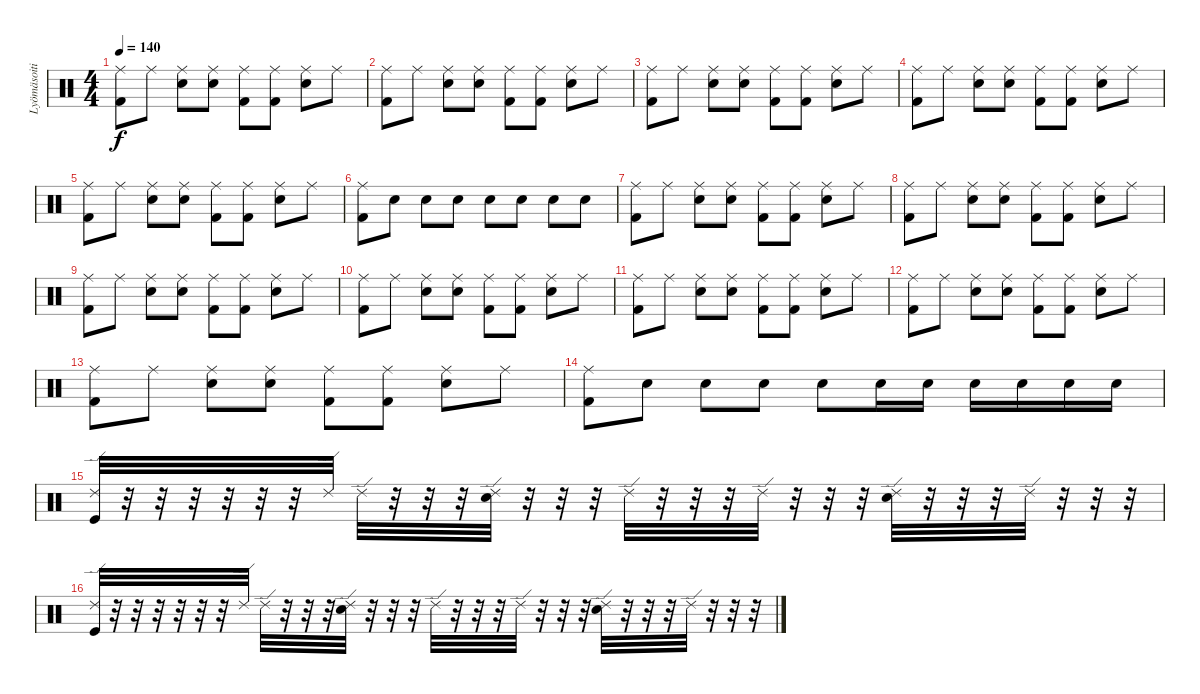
\track ("Lyömäsoitin" "Lyömäsoiti") {instrument percussion}
\staff {score}
\articulation defaults
\ts (4 4)
\tempo 140
\clef neutral
\ks c
("Ride (middle)" "Kick (hit) 2").8{dy f} "Ride (middle)".8 ("Ride (middle)" "Electric Snare (hit)").8 ("Ride (middle)" "Electric Snare (hit)").8 ("Ride (middle)" "Kick (hit) 2").8 ("Ride (middle)" "Kick (hit) 2").8 ("Ride (middle)" "Electric Snare (hit)").8 "Ride (middle)".8 |
("Ride (middle)" "Kick (hit) 2").8 "Ride (middle)".8 ("Ride (middle)" "Electric Snare (hit)").8 ("Ride (middle)" "Electric Snare (hit)").8 ("Ride (middle)" "Kick (hit) 2").8 ("Ride (middle)" "Kick (hit) 2").8 ("Ride (middle)" "Electric Snare (hit)").8 "Ride (middle)".8 |
("Ride (middle)" "Kick (hit) 2").8 "Ride (middle)".8 ("Ride (middle)" "Electric Snare (hit)").8 ("Ride (middle)" "Electric Snare (hit)").8 ("Ride (middle)" "Kick (hit) 2").8 ("Ride (middle)" "Kick (hit) 2").8 ("Ride (middle)" "Electric Snare (hit)").8 "Ride (middle)".8 |
("Ride (middle)" "Kick (hit) 2").8 "Ride (middle)".8 ("Ride (middle)" "Electric Snare (hit)").8 ("Ride (middle)" "Electric Snare (hit)").8 ("Ride (middle)" "Kick (hit) 2").8 ("Ride (middle)" "Kick (hit) 2").8 ("Ride (middle)" "Electric Snare (hit)").8 "Ride (middle)".8 |
("Ride (middle)" "Kick (hit) 2").8 "Ride (middle)".8 ("Ride (middle)" "Electric Snare (hit)").8 ("Ride (middle)" "Electric Snare (hit)").8 ("Ride (middle)" "Kick (hit) 2").8 ("Ride (middle)" "Kick (hit) 2").8 ("Ride (middle)" "Electric Snare (hit)").8 "Ride (middle)".8 |
("Ride (middle)" "Kick (hit) 2").8 "Electric Snare (hit)".8 "Electric Snare (hit)".8 "Electric Snare (hit)".8 "Electric Snare (hit)".8 "Electric Snare (hit)".8 "Electric Snare (hit)".8 "Electric Snare (hit)".8 |
("Ride (middle)" "Kick (hit) 2").8 "Ride (middle)".8 ("Ride (middle)" "Electric Snare (hit)").8 ("Ride (middle)" "Electric Snare (hit)").8 ("Ride (middle)" "Kick (hit) 2").8 ("Ride (middle)" "Kick (hit) 2").8 ("Ride (middle)" "Electric Snare (hit)").8 "Ride (middle)".8 |
("Ride (middle)" "Kick (hit) 2").8 "Ride (middle)".8 ("Ride (middle)" "Electric Snare (hit)").8 ("Ride (middle)" "Electric Snare (hit)").8 ("Ride (middle)" "Kick (hit) 2").8 ("Ride (middle)" "Kick (hit) 2").8 ("Ride (middle)" "Electric Snare (hit)").8 "Ride (middle)".8 |
("Ride (middle)" "Kick (hit) 2").8 "Ride (middle)".8 ("Ride (middle)" "Electric Snare (hit)").8 ("Ride (middle)" "Electric Snare (hit)").8 ("Ride (middle)" "Kick (hit) 2").8 ("Ride (middle)" "Kick (hit) 2").8 ("Ride (middle)" "Electric Snare (hit)").8 "Ride (middle)".8 |
("Ride (middle)" "Kick (hit) 2").8 "Ride (middle)".8 ("Ride (middle)" "Electric Snare (hit)").8 ("Ride (middle)" "Electric Snare (hit)").8 ("Ride (middle)" "Kick (hit) 2").8 ("Ride (middle)" "Kick (hit) 2").8 ("Ride (middle)" "Electric Snare (hit)").8 "Ride (middle)".8 |
("Ride (middle)" "Kick (hit) 2").8 "Ride (middle)".8 ("Ride (middle)" "Electric Snare (hit)").8 ("Ride (middle)" "Electric Snare (hit)").8 ("Ride (middle)" "Kick (hit) 2").8 ("Ride (middle)" "Kick (hit) 2").8 ("Ride (middle)" "Electric Snare (hit)").8 "Ride (middle)".8 |
("Ride (middle)" "Kick (hit) 2").8 "Ride (middle)".8 ("Ride (middle)" "Electric Snare (hit)").8 ("Ride (middle)" "Electric Snare (hit)").8 ("Ride (middle)" "Kick (hit) 2").8 ("Ride (middle)" "Kick (hit) 2").8 ("Ride (middle)" "Electric Snare (hit)").8 "Ride (middle)".8 |
("Ride (middle)" "Kick (hit) 2").8 "Ride (middle)".8 ("Ride (middle)" "Electric Snare (hit)").8 ("Ride (middle)" "Electric Snare (hit)").8 ("Ride (middle)" "Kick (hit) 2").8 ("Ride (middle)" "Kick (hit) 2").8 ("Ride (middle)" "Electric Snare (hit)").8 "Ride (middle)".8 |
("Ride (middle)" "Kick (hit) 2").8 "Electric Snare (hit)".8 "Electric Snare (hit)".8 "Electric Snare (hit)".8 "Electric Snare (hit)".8 "Electric Snare (hit)".16 "Electric Snare (hit)".16 "Electric Snare (hit)".16 "Electric Snare (hit)".16 "Electric Snare (hit)".16 "Electric Snare (hit)".16 |
("Ride (edge) 2" "Kick (hit)").32 r.32 r.32 r.32 r.32 r.32 r.32 "Ride (edge) 2".32 "Ride (edge) 2".32 r.32 r.32 r.32 ("Ride (edge) 2" "Electric Snare (hit)").32 r.32 r.32 r.32 "Ride (edge) 2".32 r.32 r.32 r.32 "Ride (edge) 2".32 r.32 r.32 r.32 ("Ride (edge) 2" "Electric Snare (hit)").32 r.32 r.32 r.32 "Ride (edge) 2".32 r.32 r.32 r.32 |
("Ride (edge) 2" "Kick (hit)").32 r.32 r.32 r.32 r.32 r.32 r.32 "Ride (edge) 2".32 "Ride (edge) 2".32 r.32 r.32 r.32 ("Ride (edge) 2" "Electric Snare (hit)").32 r.32 r.32 r.32 "Ride (edge) 2".32 r.32 r.32 r.32 "Ride (edge) 2".32 r.32 r.32 r.32 ("Ride (edge) 2" "Electric Snare (hit)").32 r.32 r.32 r.32 "Ride (edge) 2".32 r.32 r.32 r.32
